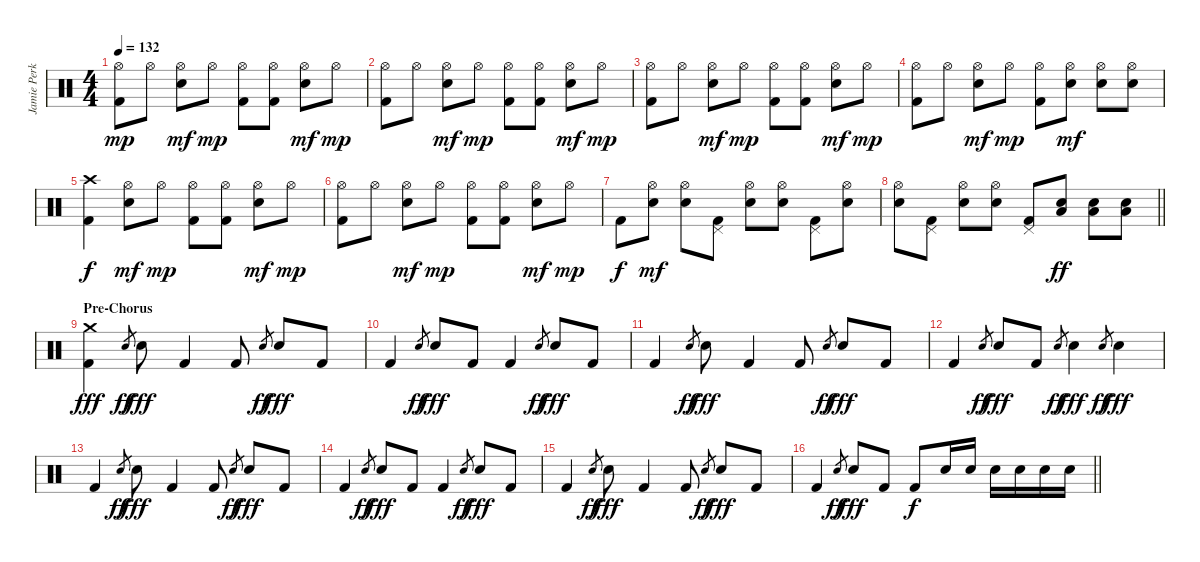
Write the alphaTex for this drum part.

\track ("Jamie Perkins" "Jamie Perk") {instrument percussion}
\staff {score}
\articulation defaults
\ts (4 4)
\tempo 132
\clef neutral
\ks c
("Hi-Hat (open)" "Kick (hit) 2").8{dy mp} "Hi-Hat (open)".8 ("Hi-Hat (open)" "Snare (hit) 2").8{dy mf} "Hi-Hat (open)".8{dy mp} ("Hi-Hat (open)" "Kick (hit) 2").8 ("Hi-Hat (open)" "Kick (hit) 2").8 ("Hi-Hat (open)" "Snare (hit) 2").8{dy mf} "Hi-Hat (open)".8{dy mp} |
("Hi-Hat (open)" "Kick (hit) 2").8 "Hi-Hat (open)".8 ("Hi-Hat (open)" "Snare (hit) 2").8{dy mf} "Hi-Hat (open)".8{dy mp} ("Hi-Hat (open)" "Kick (hit) 2").8 ("Hi-Hat (open)" "Kick (hit) 2").8 ("Hi-Hat (open)" "Snare (hit) 2").8{dy mf} "Hi-Hat (open)".8{dy mp} |
("Hi-Hat (open)" "Kick (hit) 2").8 "Hi-Hat (open)".8 ("Hi-Hat (open)" "Snare (hit) 2").8{dy mf} "Hi-Hat (open)".8{dy mp} ("Hi-Hat (open)" "Kick (hit) 2").8 ("Hi-Hat (open)" "Kick (hit) 2").8 ("Hi-Hat (open)" "Snare (hit) 2").8{dy mf} "Hi-Hat (open)".8{dy mp} |
("Hi-Hat (open)" "Kick (hit) 2").8 "Hi-Hat (open)".8 ("Hi-Hat (open)" "Snare (hit) 2").8{dy mf} "Hi-Hat (open)".8{dy mp} ("Hi-Hat (open)" "Kick (hit) 2").8 ("Hi-Hat (open)" "Snare (hit) 2").8{dy mf} ("Hi-Hat (open)" "Snare (hit) 2").8 ("Hi-Hat (open)" "Snare (hit) 2").8 |
("Crash high (hit)" "Kick (hit) 2").4{dy f} ("Hi-Hat (open)" "Snare (hit) 2").8{dy mf} "Hi-Hat (open)".8{dy mp} ("Hi-Hat (open)" "Kick (hit) 2").8 ("Hi-Hat (open)" "Kick (hit) 2").8 ("Hi-Hat (open)" "Snare (hit) 2").8{dy mf} "Hi-Hat (open)".8{dy mp} |
("Hi-Hat (open)" "Kick (hit) 2").8 "Hi-Hat (open)".8 ("Hi-Hat (open)" "Snare (hit) 2").8{dy mf} "Hi-Hat (open)".8{dy mp} ("Hi-Hat (open)" "Kick (hit) 2").8 ("Hi-Hat (open)" "Kick (hit) 2").8 ("Hi-Hat (open)" "Snare (hit) 2").8{dy mf} "Hi-Hat (open)".8{dy mp} |
"Kick (hit) 2".8{dy f} ("Hi-Hat (open)" "Snare (hit) 2").8{dy mf} ("Hi-Hat (open)" "Snare (hit) 2").8 ("Pedal Hi-Hat (hit)" "Kick (hit) 2").8 ("Hi-Hat (open)" "Snare (hit) 2").8 ("Hi-Hat (open)" "Snare (hit) 2").8 ("Pedal Hi-Hat (hit)" "Kick (hit) 2").8 ("Hi-Hat (open)" "Snare (hit) 2").8 |
\barLineRight lightlight
("Hi-Hat (open)" "Snare (hit) 2").8 ("Pedal Hi-Hat (hit)" "Kick (hit) 2").8 ("Hi-Hat (open)" "Snare (hit) 2").8 ("Hi-Hat (open)" "Snare (hit) 2").8 ("Pedal Hi-Hat (hit)" "Kick (hit) 2").8 ("Low Tom (hit)" "Snare (hit) 2").8{dy ff} ("Low Tom (hit)" "Snare (hit) 2").8 ("Low Tom (hit)" "Snare (hit) 2").8 |
\section ("" "Pre-Chorus")
("Crash medium (hit)" "Kick (hit) 2").4{dy fff} "Snare (hit) 2".8{gr dy ff} "Snare (hit) 2".8{dy fff} "Kick (hit) 2".4 "Kick (hit) 2".8 "Snare (hit) 2".8{gr dy ff} "Snare (hit) 2".8{dy fff} "Kick (hit) 2".8 |
"Kick (hit) 2".4 "Snare (hit) 2".8{gr dy ff} "Snare (hit) 2".8{dy fff} "Kick (hit) 2".8 "Kick (hit) 2".4 "Snare (hit) 2".8{gr dy ff} "Snare (hit) 2".8{dy fff} "Kick (hit) 2".8 |
"Kick (hit) 2".4 "Snare (hit) 2".8{gr dy ff} "Snare (hit) 2".8{dy fff} "Kick (hit) 2".4 "Kick (hit) 2".8 "Snare (hit) 2".8{gr dy ff} "Snare (hit) 2".8{dy fff} "Kick (hit) 2".8 |
"Kick (hit) 2".4 "Snare (hit) 2".8{gr dy ff} "Snare (hit) 2".8{dy fff} "Kick (hit) 2".8 "Snare (hit) 2".8{gr dy ff} "Snare (hit) 2".4{dy fff} "Snare (hit) 2".8{gr dy ff} "Snare (hit) 2".4{dy fff} |
"Kick (hit) 2".4 "Snare (hit) 2".8{gr dy ff} "Snare (hit) 2".8{dy fff} "Kick (hit) 2".4 "Kick (hit) 2".8 "Snare (hit) 2".8{gr dy ff} "Snare (hit) 2".8{dy fff} "Kick (hit) 2".8 |
"Kick (hit) 2".4 "Snare (hit) 2".8{gr dy ff} "Snare (hit) 2".8{dy fff} "Kick (hit) 2".8 "Kick (hit) 2".4 "Snare (hit) 2".8{gr dy ff} "Snare (hit) 2".8{dy fff} "Kick (hit) 2".8 |
"Kick (hit) 2".4 "Snare (hit) 2".8{gr dy ff} "Snare (hit) 2".8{dy fff} "Kick (hit) 2".4 "Kick (hit) 2".8 "Snare (hit) 2".8{gr dy ff} "Snare (hit) 2".8{dy fff} "Kick (hit) 2".8 |
\barLineRight lightlight "Kick (hit) 2".4 "Snare (hit) 2".8{gr dy ff} "Snare (hit) 2".8{dy fff} "Kick (hit) 2".8 "Kick (hit) 2".8{dy f} "Snare (hit) 2".16 "Snare (hit) 2".16 "Snare (hit) 2".16 "Snare (hit) 2".16 "Snare (hit) 2".16 "Snare (hit) 2".16
